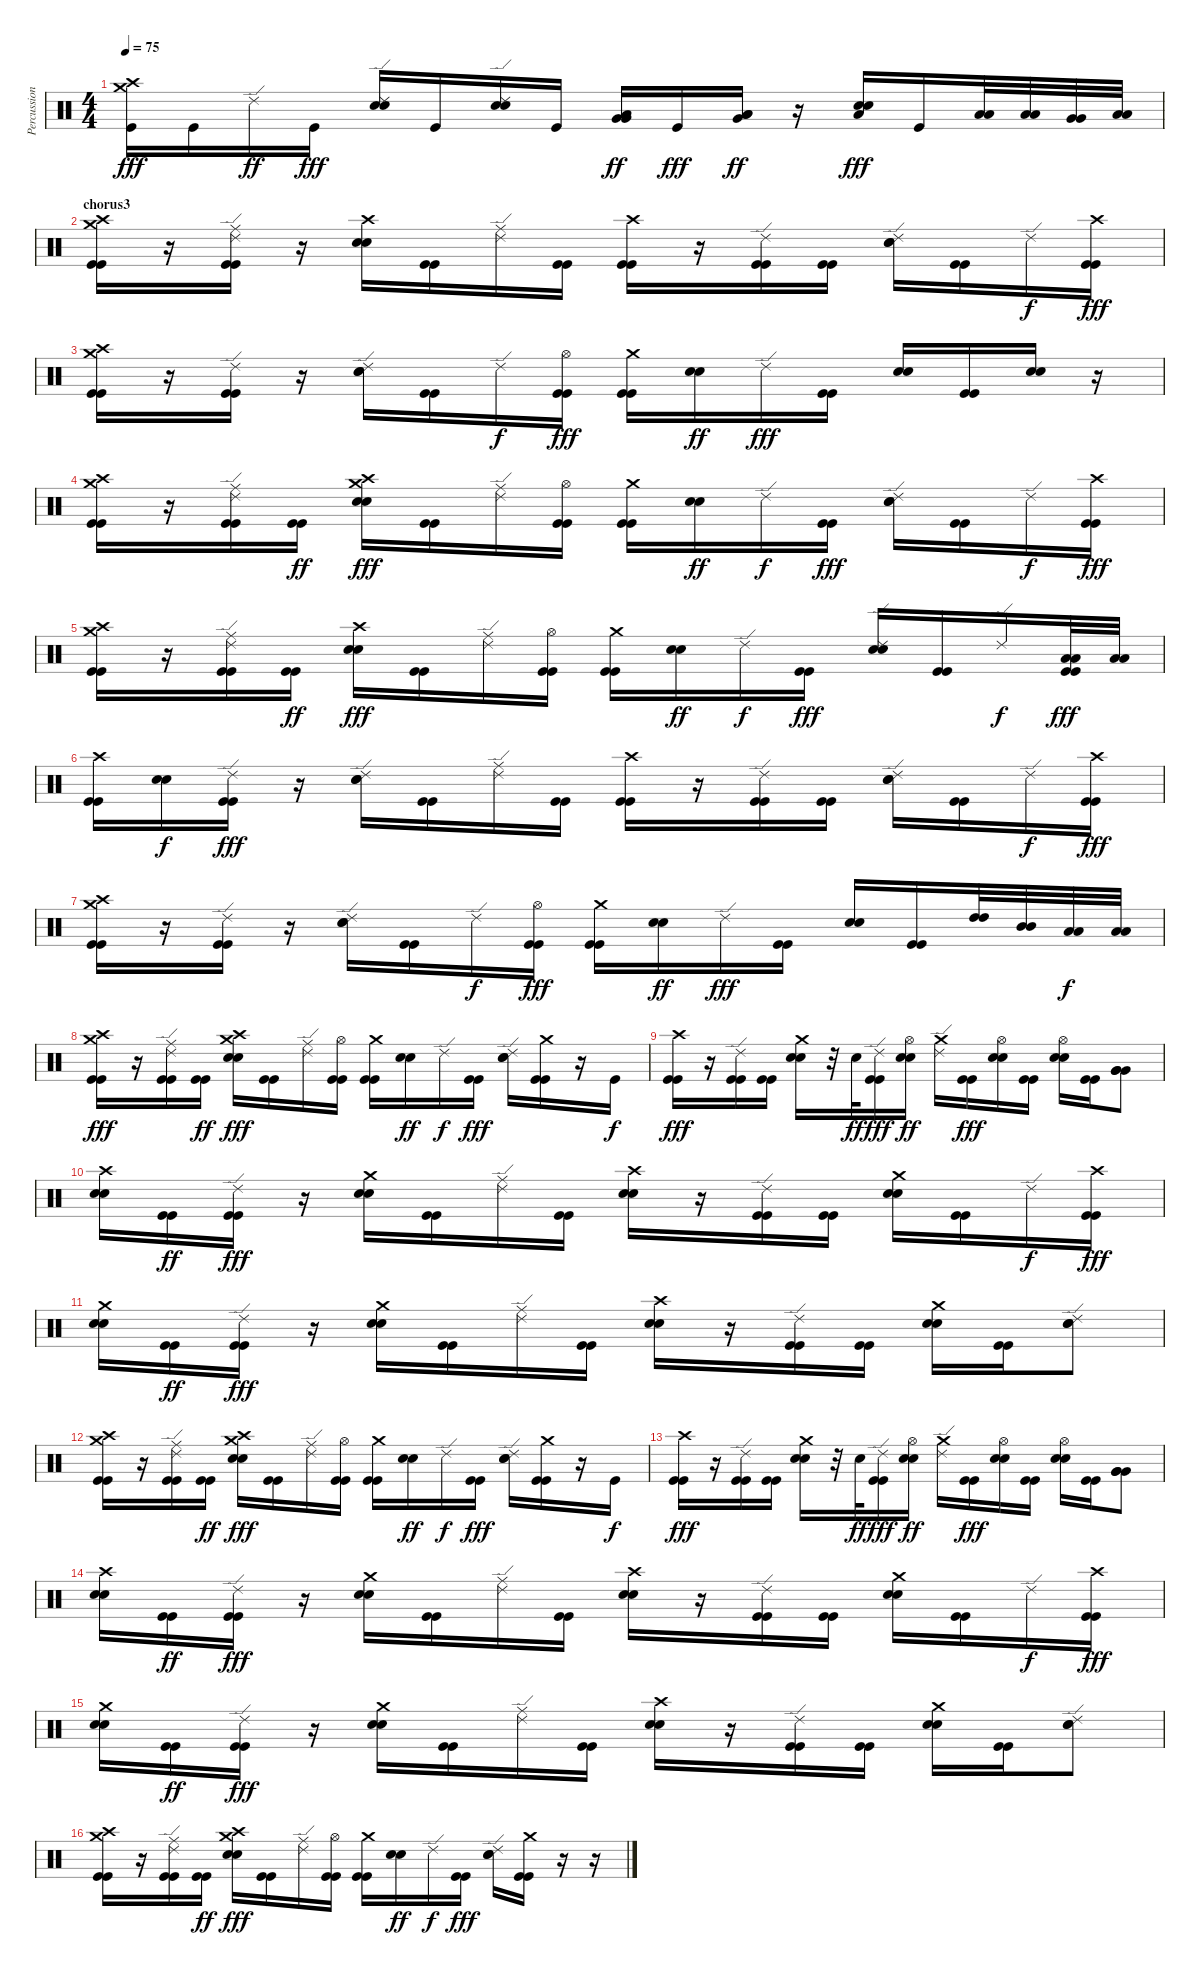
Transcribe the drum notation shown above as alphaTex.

\track ("Percussion" "Percussion") {instrument percussion}
\staff {score}
\articulation defaults
\ts (4 4)
\tempo 75
\clef neutral
\ks c
("Crash high (hit)" "Crash medium (hit)" "Kick (hit)").16{dy fff} "Kick (hit)".16 "Ride (edge) 2".16{dy ff} "Kick (hit)".16{dy fff} ("Ride (edge) 2" "Electric Snare (hit)" "Electric Snare (hit)").16 "Kick (hit)".16 ("Ride (edge) 2" "Electric Snare (hit)" "Electric Snare (hit)").16 "Kick (hit)".16 ("Very Low Tom (hit)" "Very Low Tom (hit)" "Low Floor Tom (hit)").16{dy ff} "Kick (hit)".16{dy fff} ("Low Floor Tom (hit)" "Very Low Tom (hit)" "Low Floor Tom (hit)").16{dy ff} r.16 ("Electric Snare (hit)" "Low Floor Tom (hit)" "Electric Snare (hit)").16{dy fff} "Kick (hit)".16 ("Low Tom (hit)" "Low Tom (hit)").32 ("Low Tom (hit)" "Low Tom (hit)").32 ("Very Low Tom (hit)" "Very Low Tom (hit)").32 ("Low Floor Tom (hit)" "Low Floor Tom (hit)").32 |
\section ("" "chorus3")
("Crash medium (hit)" "Crash high (hit)" "Kick (hit)" "Kick (hit)").16 r.16 ("Ride (middle)" "Ride (edge) 2" "Kick (hit)" "Kick (hit)").16 r.16 ("Crash high (hit)" "Electric Snare (hit)" "Electric Snare (hit)").16 ("Kick (hit)" "Kick (hit)").16 ("Ride (middle)" "Ride (edge) 2").16 ("Kick (hit)" "Kick (hit)").16 ("Crash high (hit)" "Kick (hit)" "Kick (hit)").16 r.16 ("Ride (edge) 2" "Kick (hit)" "Kick (hit)").16 ("Kick (hit)" "Kick (hit)").16 ("Ride (edge) 2" "Electric Snare (hit)" "Electric Snare (hit)").16 ("Kick (hit)" "Kick (hit)").16 "Ride (edge) 2".16{dy f} ("Crash high (hit)" "Kick (hit)" "Kick (hit)").16{dy fff} |
("Crash medium (hit)" "Crash high (hit)" "Kick (hit)" "Kick (hit)").16 r.16 ("Ride (edge) 2" "Kick (hit)" "Kick (hit)").16 r.16 ("Ride (edge) 2" "Electric Snare (hit)" "Electric Snare (hit)").16 ("Kick (hit)" "Kick (hit)").16 "Ride (edge) 2".16{dy f} ("Hi-Hat (open)" "Kick (hit)" "Kick (hit)").16{dy fff} ("Crash medium (hit)" "Kick (hit)" "Kick (hit)").16 ("Electric Snare (hit)" "Electric Snare (hit)").16{dy ff} "Ride (edge) 2".16{dy fff} ("Kick (hit)" "Kick (hit)").16 ("Electric Snare (hit)" "Electric Snare (hit)").16 ("Kick (hit)" "Kick (hit)").16 ("Electric Snare (hit)" "Electric Snare (hit)").16 r.16 |
("Crash medium (hit)" "Crash high (hit)" "Kick (hit)" "Kick (hit)").16 r.16 ("Ride (middle)" "Ride (edge) 2" "Kick (hit)" "Kick (hit)").16 ("Kick (hit)" "Kick (hit)").16{dy ff} ("Crash high (hit)" "Crash medium (hit)" "Electric Snare (hit)" "Electric Snare (hit)").16{dy fff} ("Kick (hit)" "Kick (hit)").16 ("Ride (middle)" "Ride (edge) 2").16 ("Hi-Hat (open)" "Kick (hit)" "Kick (hit)").16 ("Crash medium (hit)" "Kick (hit)" "Kick (hit)").16 ("Electric Snare (hit)" "Electric Snare (hit)").16{dy ff} "Ride (edge) 2".16{dy f} ("Kick (hit)" "Kick (hit)").16{dy fff} ("Ride (edge) 2" "Electric Snare (hit)" "Electric Snare (hit)").16 ("Kick (hit)" "Kick (hit)").16 "Ride (edge) 2".16{dy f} ("Crash high (hit)" "Kick (hit)" "Kick (hit)").16{dy fff} |
("Crash medium (hit)" "Crash high (hit)" "Kick (hit)" "Kick (hit)").16 r.16 ("Ride (middle)" "Ride (edge) 2" "Kick (hit)" "Kick (hit)").16 ("Kick (hit)" "Kick (hit)").16{dy ff} ("Crash high (hit)" "Electric Snare (hit)" "Electric Snare (hit)").16{dy fff} ("Kick (hit)" "Kick (hit)").16 ("Ride (middle)" "Ride (edge) 2").16 ("Hi-Hat (open)" "Kick (hit)" "Kick (hit)").16 ("Crash medium (hit)" "Kick (hit)" "Kick (hit)").16 ("Electric Snare (hit)" "Electric Snare (hit)").16{dy ff} "Ride (edge) 2".16{dy f} ("Kick (hit)" "Kick (hit)").16{dy fff} ("Ride (edge) 2" "Electric Snare (hit)" "Electric Snare (hit)").16 ("Kick (hit)" "Kick (hit)").16 "Ride (edge) 2".16{dy f} ("Low Tom (hit)" "Low Tom (hit)" "Kick (hit)" "Kick (hit)").32{dy fff} ("Low Tom (hit)" "Low Tom (hit)").32 |
("Crash high (hit)" "Kick (hit)" "Kick (hit)").16 ("Electric Snare (hit)" "Electric Snare (hit)").16{dy f} ("Ride (edge) 2" "Kick (hit)" "Kick (hit)").16{dy fff} r.16 ("Ride (edge) 2" "Electric Snare (hit)" "Electric Snare (hit)").16 ("Kick (hit)" "Kick (hit)").16 ("Ride (middle)" "Ride (edge) 2").16 ("Kick (hit)" "Kick (hit)").16 ("Crash high (hit)" "Kick (hit)" "Kick (hit)").16 r.16 ("Ride (edge) 2" "Kick (hit)" "Kick (hit)").16 ("Kick (hit)" "Kick (hit)").16 ("Ride (edge) 2" "Electric Snare (hit)" "Electric Snare (hit)").16 ("Kick (hit)" "Kick (hit)").16 "Ride (edge) 2".16{dy f} ("Crash high (hit)" "Kick (hit)" "Kick (hit)").16{dy fff} |
("Crash medium (hit)" "Crash high (hit)" "Kick (hit)" "Kick (hit)").16 r.16 ("Ride (edge) 2" "Kick (hit)" "Kick (hit)").16 r.16 ("Ride (edge) 2" "Electric Snare (hit)" "Electric Snare (hit)").16 ("Kick (hit)" "Kick (hit)").16 "Ride (edge) 2".16{dy f} ("Hi-Hat (open)" "Kick (hit)" "Kick (hit)").16{dy fff} ("Crash medium (hit)" "Kick (hit)" "Kick (hit)").16 ("Electric Snare (hit)" "Electric Snare (hit)").16{dy ff} "Ride (edge) 2".16{dy fff} ("Kick (hit)" "Kick (hit)").16 ("Electric Snare (hit)" "Electric Snare (hit)").16 ("Kick (hit)" "Kick (hit)").16 ("High Tom (hit)" "High Tom (hit)").32 ("Mid Tom (hit)" "Mid Tom (hit)").32 ("Low Tom (hit)" "Low Tom (hit)").32{dy f} ("Low Tom (hit)" "Low Tom (hit)").32 |
("Crash medium (hit)" "Crash high (hit)" "Kick (hit)" "Kick (hit)").16{dy fff} r.16 ("Ride (middle)" "Ride (edge) 2" "Kick (hit)" "Kick (hit)").16 ("Kick (hit)" "Kick (hit)").16{dy ff} ("Crash high (hit)" "Crash medium (hit)" "Electric Snare (hit)" "Electric Snare (hit)").16{dy fff} ("Kick (hit)" "Kick (hit)").16 ("Ride (middle)" "Ride (edge) 2").16 ("Hi-Hat (open)" "Kick (hit)" "Kick (hit)").16 ("Crash medium (hit)" "Kick (hit)" "Kick (hit)").16 ("Electric Snare (hit)" "Electric Snare (hit)").16{dy ff} "Ride (edge) 2".16{dy f} ("Kick (hit)" "Kick (hit)").16{dy fff} ("Ride (edge) 2" "Electric Snare (hit)" "Electric Snare (hit)").16 ("Crash medium (hit)" "Kick (hit)" "Kick (hit)").16 r.16 "Kick (hit)".16{dy f} |
("Crash high (hit)" "Kick (hit)" "Kick (hit)").16{dy fff} r.16 ("Ride (edge) 2" "Kick (hit)" "Kick (hit)").16 ("Kick (hit)" "Kick (hit)").16 ("Crash medium (hit)" "Electric Snare (hit)" "Electric Snare (hit)").16 r.32 "Electric Snare (hit)".32{dy ff} ("Ride (edge) 2" "Kick (hit)" "Kick (hit)").16{dy fff} ("Hi-Hat (open)" "Electric Snare (hit)" "Electric Snare (hit)").16{dy ff} ("Crash medium (hit)" "Ride (edge) 2").16 ("Kick (hit)" "Kick (hit)").16{dy fff} ("Hi-Hat (open)" "Electric Snare (hit)" "Electric Snare (hit)").16 ("Kick (hit)" "Kick (hit)").16 ("Hi-Hat (open)" "Electric Snare (hit)" "Electric Snare (hit)").16 ("Kick (hit)" "Kick (hit)").16 ("Very Low Tom (hit)" "Very Low Tom (hit)" "Very Low Tom (hit)").8 |
("Crash high (hit)" "Electric Snare (hit)" "Electric Snare (hit)").16 ("Kick (hit)" "Kick (hit)").16{dy ff} ("Ride (edge) 2" "Kick (hit)" "Kick (hit)").16{dy fff} r.16 ("Crash medium (hit)" "Electric Snare (hit)" "Electric Snare (hit)").16 ("Kick (hit)" "Kick (hit)").16 ("Ride (middle)" "Ride (edge) 2").16 ("Kick (hit)" "Kick (hit)").16 ("Crash high (hit)" "Electric Snare (hit)" "Electric Snare (hit)").16 r.16 ("Ride (edge) 2" "Kick (hit)" "Kick (hit)").16 ("Kick (hit)" "Kick (hit)").16 ("Crash medium (hit)" "Electric Snare (hit)" "Electric Snare (hit)").16 ("Kick (hit)" "Kick (hit)").16 "Ride (edge) 2".16{dy f} ("Crash high (hit)" "Kick (hit)" "Kick (hit)").16{dy fff} |
("Crash medium (hit)" "Electric Snare (hit)" "Electric Snare (hit)").16 ("Kick (hit)" "Kick (hit)").16{dy ff} ("Ride (edge) 2" "Kick (hit)" "Kick (hit)").16{dy fff} r.16 ("Crash medium (hit)" "Electric Snare (hit)" "Electric Snare (hit)").16 ("Kick (hit)" "Kick (hit)").16 ("Ride (middle)" "Ride (edge) 2").16 ("Kick (hit)" "Kick (hit)").16 ("Crash high (hit)" "Electric Snare (hit)" "Electric Snare (hit)").16 r.16 ("Ride (edge) 2" "Kick (hit)" "Kick (hit)").16 ("Kick (hit)" "Kick (hit)").16 ("Crash medium (hit)" "Electric Snare (hit)" "Electric Snare (hit)").16 ("Kick (hit)" "Kick (hit)").16 ("Ride (edge) 2" "Electric Snare (hit)" "Electric Snare (hit)").8 |
("Crash medium (hit)" "Crash high (hit)" "Kick (hit)" "Kick (hit)").16 r.16 ("Ride (middle)" "Ride (edge) 2" "Kick (hit)" "Kick (hit)").16 ("Kick (hit)" "Kick (hit)").16{dy ff} ("Crash high (hit)" "Crash medium (hit)" "Electric Snare (hit)" "Electric Snare (hit)").16{dy fff} ("Kick (hit)" "Kick (hit)").16 ("Ride (middle)" "Ride (edge) 2").16 ("Hi-Hat (open)" "Kick (hit)" "Kick (hit)").16 ("Crash medium (hit)" "Kick (hit)" "Kick (hit)").16 ("Electric Snare (hit)" "Electric Snare (hit)").16{dy ff} "Ride (edge) 2".16{dy f} ("Kick (hit)" "Kick (hit)").16{dy fff} ("Ride (edge) 2" "Electric Snare (hit)" "Electric Snare (hit)").16 ("Crash medium (hit)" "Kick (hit)" "Kick (hit)").16 r.16 "Kick (hit)".16{dy f} |
("Crash high (hit)" "Kick (hit)" "Kick (hit)").16{dy fff} r.16 ("Ride (edge) 2" "Kick (hit)" "Kick (hit)").16 ("Kick (hit)" "Kick (hit)").16 ("Crash medium (hit)" "Electric Snare (hit)" "Electric Snare (hit)").16 r.32 "Electric Snare (hit)".32{dy ff} ("Ride (edge) 2" "Kick (hit)" "Kick (hit)").16{dy fff} ("Hi-Hat (open)" "Electric Snare (hit)" "Electric Snare (hit)").16{dy ff} ("Crash medium (hit)" "Ride (edge) 2").16 ("Kick (hit)" "Kick (hit)").16{dy fff} ("Hi-Hat (open)" "Electric Snare (hit)" "Electric Snare (hit)").16 ("Kick (hit)" "Kick (hit)").16 ("Hi-Hat (open)" "Electric Snare (hit)" "Electric Snare (hit)").16 ("Kick (hit)" "Kick (hit)").16 ("Very Low Tom (hit)" "Very Low Tom (hit)" "Very Low Tom (hit)").8 |
("Crash high (hit)" "Electric Snare (hit)" "Electric Snare (hit)").16 ("Kick (hit)" "Kick (hit)").16{dy ff} ("Ride (edge) 2" "Kick (hit)" "Kick (hit)").16{dy fff} r.16 ("Crash medium (hit)" "Electric Snare (hit)" "Electric Snare (hit)").16 ("Kick (hit)" "Kick (hit)").16 ("Ride (middle)" "Ride (edge) 2").16 ("Kick (hit)" "Kick (hit)").16 ("Crash high (hit)" "Electric Snare (hit)" "Electric Snare (hit)").16 r.16 ("Ride (edge) 2" "Kick (hit)" "Kick (hit)").16 ("Kick (hit)" "Kick (hit)").16 ("Crash medium (hit)" "Electric Snare (hit)" "Electric Snare (hit)").16 ("Kick (hit)" "Kick (hit)").16 "Ride (edge) 2".16{dy f} ("Crash high (hit)" "Kick (hit)" "Kick (hit)").16{dy fff} |
("Crash medium (hit)" "Electric Snare (hit)" "Electric Snare (hit)").16 ("Kick (hit)" "Kick (hit)").16{dy ff} ("Ride (edge) 2" "Kick (hit)" "Kick (hit)").16{dy fff} r.16 ("Crash medium (hit)" "Electric Snare (hit)" "Electric Snare (hit)").16 ("Kick (hit)" "Kick (hit)").16 ("Ride (middle)" "Ride (edge) 2").16 ("Kick (hit)" "Kick (hit)").16 ("Crash high (hit)" "Electric Snare (hit)" "Electric Snare (hit)").16 r.16 ("Ride (edge) 2" "Kick (hit)" "Kick (hit)").16 ("Kick (hit)" "Kick (hit)").16 ("Crash medium (hit)" "Electric Snare (hit)" "Electric Snare (hit)").16 ("Kick (hit)" "Kick (hit)").16 ("Ride (edge) 2" "Electric Snare (hit)" "Electric Snare (hit)").8 |
("Crash medium (hit)" "Crash high (hit)" "Kick (hit)" "Kick (hit)").16 r.16 ("Ride (middle)" "Ride (edge) 2" "Kick (hit)" "Kick (hit)").16 ("Kick (hit)" "Kick (hit)").16{dy ff} ("Crash high (hit)" "Crash medium (hit)" "Electric Snare (hit)" "Electric Snare (hit)").16{dy fff} ("Kick (hit)" "Kick (hit)").16 ("Ride (middle)" "Ride (edge) 2").16 ("Hi-Hat (open)" "Kick (hit)" "Kick (hit)").16 ("Crash medium (hit)" "Kick (hit)" "Kick (hit)").16 ("Electric Snare (hit)" "Electric Snare (hit)").16{dy ff} "Ride (edge) 2".16{dy f} ("Kick (hit)" "Kick (hit)").16{dy fff} ("Ride (edge) 2" "Electric Snare (hit)" "Electric Snare (hit)").16 ("Crash medium (hit)" "Kick (hit)" "Kick (hit)").16 r.16 r.16
